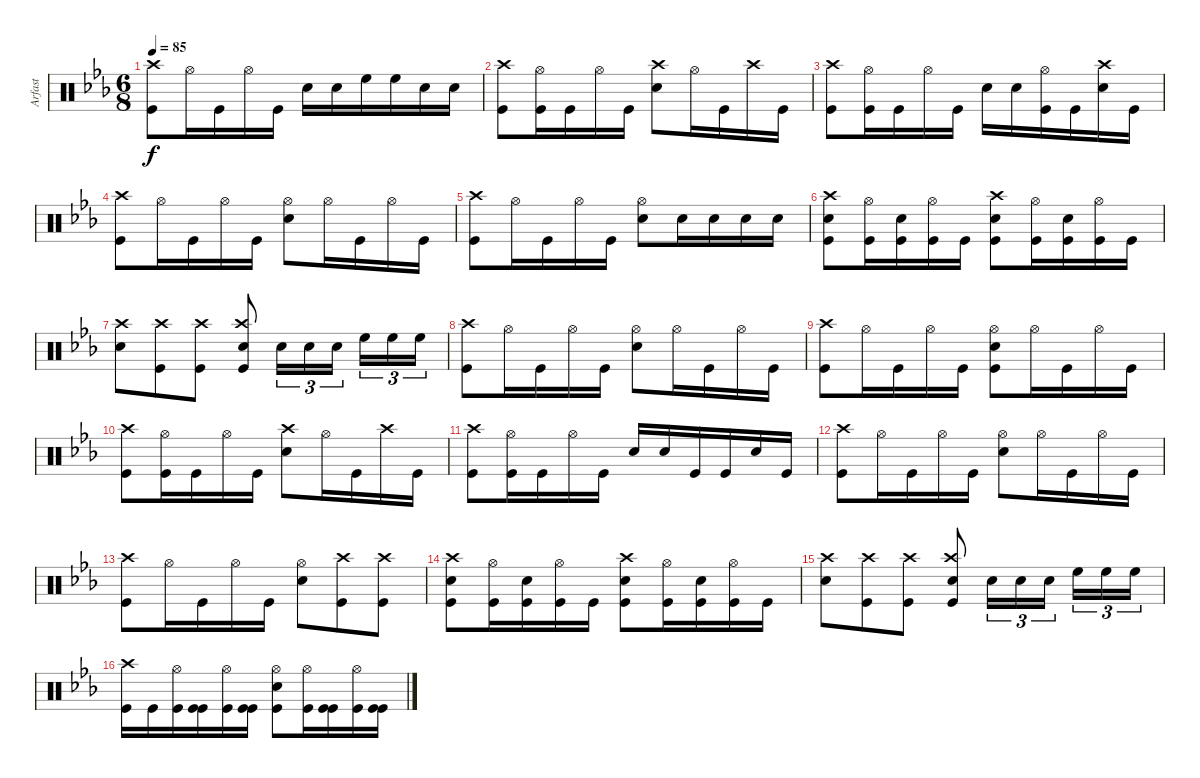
\track ("Arfast" "Arfast") {instrument percussion}
\staff {score}
\articulation defaults
\ts (6 8)
\tempo 85
\clef neutral
\ks cminor
("Kick (hit)" "Crash high (hit)").8{dy f} "Hi-Hat (open)".16 "Kick (hit)".16 "Hi-Hat (open)".16 "Kick (hit)".16 "Snare (hit) 2".16 "Snare (hit) 2".16 "High Floor Tom (hit)".16 "High Floor Tom (hit)".16 "Snare (hit) 2".16 "Snare (hit) 2".16 |
("Kick (hit)" "Crash high (hit)").8 ("Kick (hit)" "Hi-Hat (open)").16 "Kick (hit)".16 "Hi-Hat (open)".16 "Kick (hit)".16 ("Snare (hit) 2" "Crash high (hit)").8 "Hi-Hat (open)".16 "Kick (hit)".16 "Crash high (hit)".16 "Kick (hit)".16 |
("Kick (hit)" "Crash high (hit)").8 ("Kick (hit)" "Hi-Hat (open)").16 "Kick (hit)".16 "Hi-Hat (open)".16 "Kick (hit)".16 "Snare (hit) 2".16 "Snare (hit) 2".16 ("Hi-Hat (open)" "Kick (hit)").16 "Kick (hit)".16 ("Crash high (hit)" "Snare (hit) 2").16 "Kick (hit)".16 |
("Kick (hit)" "Crash high (hit)").8 "Hi-Hat (open)".16 "Kick (hit)".16 "Hi-Hat (open)".16 "Kick (hit)".16 ("Snare (hit) 2" "Hi-Hat (open)").8 "Hi-Hat (open)".16 "Kick (hit)".16 "Hi-Hat (open)".16 "Kick (hit)".16 |
("Kick (hit)" "Crash high (hit)").8 "Hi-Hat (open)".16 "Kick (hit)".16 "Hi-Hat (open)".16 "Kick (hit)".16 ("Snare (hit) 2" "Hi-Hat (open)").8 "Snare (hit) 2".16 "Snare (hit) 2".16 "Snare (hit) 2".16 "Snare (hit) 2".16 |
("Kick (hit)" "Crash high (hit)" "Snare (hit) 2").8 ("Hi-Hat (open)" "Kick (hit)").16 ("Kick (hit)" "Snare (hit) 2").16 ("Hi-Hat (open)" "Kick (hit)").16 "Kick (hit)".16 ("Kick (hit)" "Crash high (hit)" "Snare (hit) 2").8 ("Hi-Hat (open)" "Kick (hit)").16 ("Kick (hit)" "Snare (hit) 2").16 ("Hi-Hat (open)" "Kick (hit)").16 "Kick (hit)".16 |
("Crash high (hit)" "Snare (hit) 2").8 ("Crash high (hit)" "Kick (hit)").8 ("Crash high (hit)" "Kick (hit)").8 ("Crash high (hit)" "Kick (hit)" "Snare (hit) 2").8 "Snare (hit) 2".16{tu (3 2)} "Snare (hit) 2".16{tu (3 2)} "Snare (hit) 2".16{tu (3 2) beam splitsecondary} "High Floor Tom (hit)".16{tu (3 2)} "High Floor Tom (hit)".16{tu (3 2)} "High Floor Tom (hit)".16{tu (3 2)} |
("Kick (hit)" "Crash high (hit)").8 "Hi-Hat (open)".16 "Kick (hit)".16 "Hi-Hat (open)".16 "Kick (hit)".16 ("Snare (hit) 2" "Hi-Hat (open)").8 "Hi-Hat (open)".16 "Kick (hit)".16 "Hi-Hat (open)".16 "Kick (hit)".16 |
("Kick (hit)" "Crash high (hit)").8 "Hi-Hat (open)".16 "Kick (hit)".16 "Hi-Hat (open)".16 "Kick (hit)".16 ("Snare (hit) 2" "Kick (hit)" "Hi-Hat (open)").8 "Hi-Hat (open)".16 "Kick (hit)".16 "Hi-Hat (open)".16 "Kick (hit)".16 |
("Kick (hit)" "Crash high (hit)").8 ("Kick (hit)" "Hi-Hat (open)").16 "Kick (hit)".16 "Hi-Hat (open)".16 "Kick (hit)".16 ("Snare (hit) 2" "Crash high (hit)").8 "Hi-Hat (open)".16 "Kick (hit)".16 "Crash high (hit)".16 "Kick (hit)".16 |
("Kick (hit)" "Crash high (hit)").8 ("Kick (hit)" "Hi-Hat (open)").16 "Kick (hit)".16 "Hi-Hat (open)".16 "Kick (hit)".16 "Snare (hit) 2".16 "Snare (hit) 2".16 "Kick (hit)".16 "Kick (hit)".16 "Snare (hit) 2".16 "Kick (hit)".16 |
("Kick (hit)" "Crash high (hit)").8 "Hi-Hat (open)".16 "Kick (hit)".16 "Hi-Hat (open)".16 "Kick (hit)".16 ("Snare (hit) 2" "Hi-Hat (open)").8 "Hi-Hat (open)".16 "Kick (hit)".16 "Hi-Hat (open)".16 "Kick (hit)".16 |
("Kick (hit)" "Crash high (hit)").8 "Hi-Hat (open)".16 "Kick (hit)".16 "Hi-Hat (open)".16 "Kick (hit)".16 ("Snare (hit) 2" "Hi-Hat (open)").8 ("Crash high (hit)" "Kick (hit)").8 ("Crash high (hit)" "Kick (hit)").8 |
("Kick (hit)" "Crash high (hit)" "Snare (hit) 2").8 ("Hi-Hat (open)" "Kick (hit)").16 ("Kick (hit)" "Snare (hit) 2").16 ("Hi-Hat (open)" "Kick (hit)").16 "Kick (hit)".16 ("Kick (hit)" "Crash high (hit)" "Snare (hit) 2").8 ("Hi-Hat (open)" "Kick (hit)").16 ("Kick (hit)" "Snare (hit) 2").16 ("Hi-Hat (open)" "Kick (hit)").16 "Kick (hit)".16 |
("Crash high (hit)" "Snare (hit) 2").8 ("Crash high (hit)" "Kick (hit)").8 ("Crash high (hit)" "Kick (hit)").8 ("Crash high (hit)" "Kick (hit)" "Snare (hit) 2").8 "Snare (hit) 2".16{tu (3 2)} "Snare (hit) 2".16{tu (3 2)} "Snare (hit) 2".16{tu (3 2) beam splitsecondary} "High Floor Tom (hit)".16{tu (3 2)} "High Floor Tom (hit)".16{tu (3 2)} "High Floor Tom (hit)".16{tu (3 2)} |
("Kick (hit)" "Crash high (hit)").16 "Kick (hit)".16 ("Hi-Hat (open)" "Kick (hit)").16 ("Kick (hit)" "Kick (hit)").16 ("Hi-Hat (open)" "Kick (hit)").16 ("Kick (hit)" "Kick (hit)").16 ("Snare (hit) 2" "Hi-Hat (open)" "Kick (hit)").8 ("Hi-Hat (open)" "Kick (hit)").16 ("Kick (hit)" "Kick (hit)").16 ("Hi-Hat (open)" "Kick (hit)").16 ("Kick (hit)" "Kick (hit)").16
